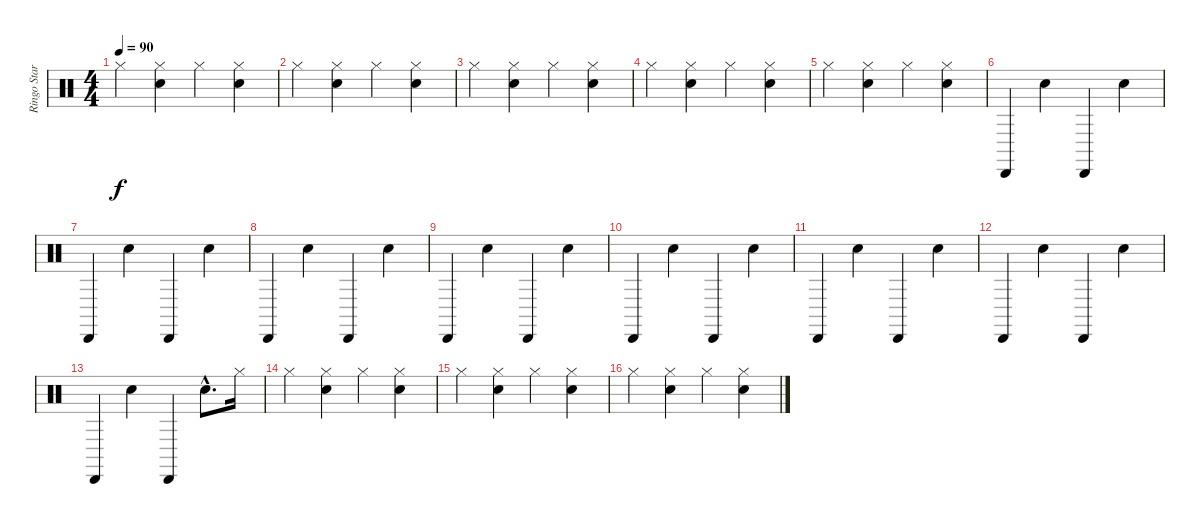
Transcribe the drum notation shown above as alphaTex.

\track ("Ringo Starr" "Ringo Star") {instrument percussion}
\staff {score}
\articulation defaults
\ts (4 4)
\tempo 90
\clef neutral
\ks c "Hi-Hat (closed)".4{dy f}
("Hi-Hat (closed)" "Snare (hit) 2").4 "Hi-Hat (closed)".4 ("Hi-Hat (closed)" "Snare (hit) 2").4 |
"Hi-Hat (closed)".4 ("Hi-Hat (closed)" "Snare (hit) 2").4 "Hi-Hat (closed)".4 ("Hi-Hat (closed)" "Snare (hit) 2").4 |
"Hi-Hat (closed)".4 ("Hi-Hat (closed)" "Snare (hit) 2").4 "Hi-Hat (closed)".4 ("Hi-Hat (closed)" "Snare (hit) 2").4 |
"Hi-Hat (closed)".4 ("Hi-Hat (closed)" "Snare (hit) 2").4 "Hi-Hat (closed)".4 ("Hi-Hat (closed)" "Snare (hit) 2").4 |
"Hi-Hat (closed)".4 ("Hi-Hat (closed)" "Snare (hit) 2").4 "Hi-Hat (closed)".4 ("Hi-Hat (closed)" "Snare (hit) 2").4 |
"Cabasa (hit)".4 "Snare (hit) 2".4 "Cabasa (hit)".4 "Snare (hit) 2".4 |
"Cabasa (hit)".4 "Snare (hit) 2".4 "Cabasa (hit)".4 "Snare (hit) 2".4 |
"Cabasa (hit)".4 "Snare (hit) 2".4 "Cabasa (hit)".4 "Snare (hit) 2".4 |
"Cabasa (hit)".4 "Snare (hit) 2".4 "Cabasa (hit)".4 "Snare (hit) 2".4 |
"Cabasa (hit)".4 "Snare (hit) 2".4 "Cabasa (hit)".4 "Snare (hit) 2".4 |
"Cabasa (hit)".4 "Snare (hit) 2".4 "Cabasa (hit)".4 "Snare (hit) 2".4 |
"Cabasa (hit)".4 "Snare (hit) 2".4 "Cabasa (hit)".4 "Snare (hit) 2".4 |
"Cabasa (hit)".4 "Snare (hit) 2".4 "Cabasa (hit)".4 "Snare (hit) 2"{hac}.8{d} "Hi-Hat (closed)".16 |
"Hi-Hat (closed)".4 ("Hi-Hat (closed)" "Snare (hit) 2").4 "Hi-Hat (closed)".4 ("Hi-Hat (closed)" "Snare (hit) 2").4 |
"Hi-Hat (closed)".4 ("Hi-Hat (closed)" "Snare (hit) 2").4 "Hi-Hat (closed)".4 ("Hi-Hat (closed)" "Snare (hit) 2").4 |
"Hi-Hat (closed)".4 ("Hi-Hat (closed)" "Snare (hit) 2").4 "Hi-Hat (closed)".4 ("Hi-Hat (closed)" "Snare (hit) 2").4
